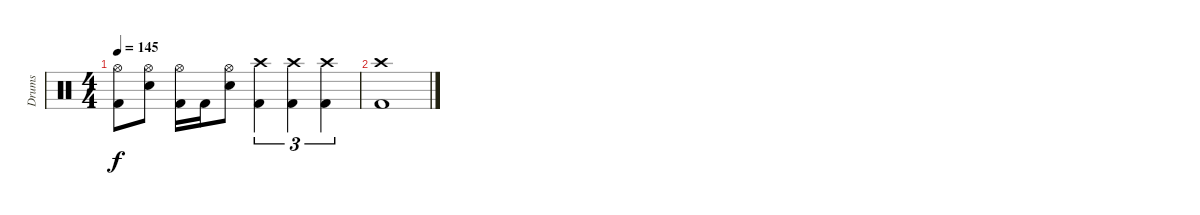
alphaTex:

\track ("Drums" "Drums") {instrument percussion}
\staff {score}
\articulation defaults
\ts (4 4)
\tempo 145
\clef neutral
\ks c
("Hi-Hat (open)" "Kick (hit) 2").8{dy f} ("Hi-Hat (open)" "Electric Snare (hit)").8 ("Hi-Hat (open)" "Kick (hit) 2").16 "Kick (hit) 2".16 ("Hi-Hat (open)" "Electric Snare (hit)").8 ("Crash high (hit)" "Kick (hit) 2").4{tu (3 2)} ("Crash high (hit)" "Kick (hit) 2").4{tu (3 2)} ("Crash high (hit)" "Kick (hit) 2").4{tu (3 2)} |
("Crash high (hit)" "Kick (hit) 2").1
